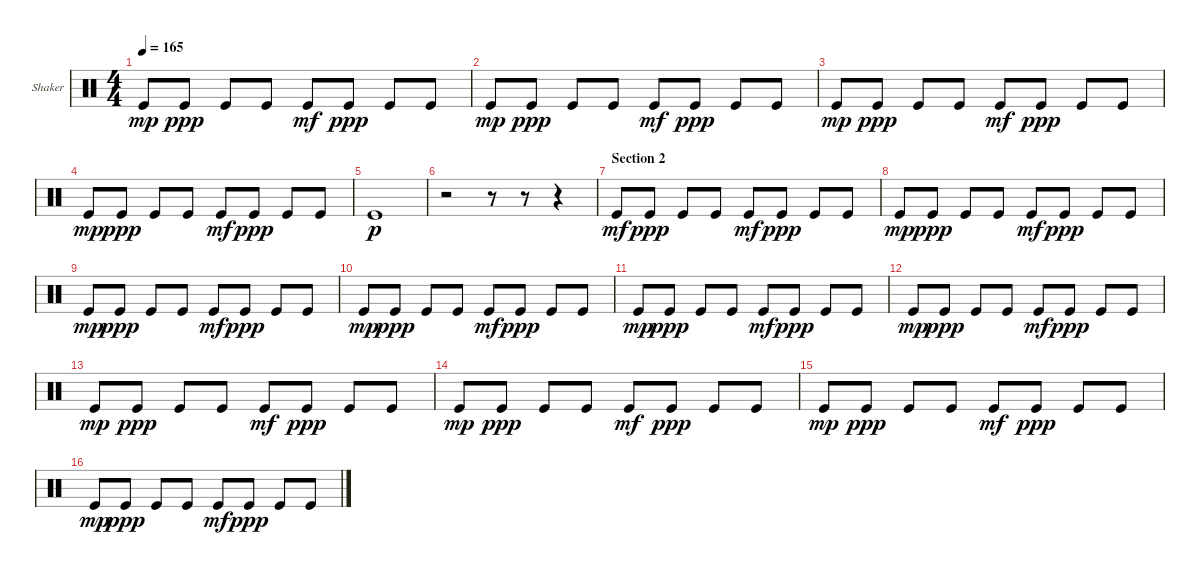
\bracketExtendMode groupsimilarinstruments
\firstSystemTrackNameOrientation horizontal
\otherSystemsTrackNameOrientation horizontal
\track ("Shaker" "Shaker") {instrument percussion}
\staff {score}
\articulation defaults
\ts (4 4)
\tempo 165
\clef neutral
\ks c "Kick (hit)".8{dy mp} "Kick (hit)".8{dy ppp} "Kick (hit)".8 "Kick (hit)".8 "Kick (hit)".8{dy mf} "Kick (hit)".8{dy ppp} "Kick (hit)".8 "Kick (hit)".8
|
"Kick (hit)".8{dy mp} "Kick (hit)".8{dy ppp} "Kick (hit)".8 "Kick (hit)".8 "Kick (hit)".8{dy mf} "Kick (hit)".8{dy ppp} "Kick (hit)".8 "Kick (hit)".8 |
"Kick (hit)".8{dy mp} "Kick (hit)".8{dy ppp} "Kick (hit)".8 "Kick (hit)".8 "Kick (hit)".8{dy mf} "Kick (hit)".8{dy ppp} "Kick (hit)".8 "Kick (hit)".8 |
"Kick (hit)".8{dy mp} "Kick (hit)".8{dy ppp} "Kick (hit)".8 "Kick (hit)".8 "Kick (hit)".8{dy mf} "Kick (hit)".8{dy ppp} "Kick (hit)".8 "Kick (hit)".8 |
"Kick (hit)".1{dy p} |
r.2 r.8 r.8 r.4 |
\section ("" "Section 2")
"Kick (hit)".8{dy mf} "Kick (hit)".8{dy ppp} "Kick (hit)".8 "Kick (hit)".8 "Kick (hit)".8{dy mf} "Kick (hit)".8{dy ppp} "Kick (hit)".8 "Kick (hit)".8 |
"Kick (hit)".8{dy mp} "Kick (hit)".8{dy ppp} "Kick (hit)".8 "Kick (hit)".8 "Kick (hit)".8{dy mf} "Kick (hit)".8{dy ppp} "Kick (hit)".8 "Kick (hit)".8 |
"Kick (hit)".8{dy mp} "Kick (hit)".8{dy ppp} "Kick (hit)".8 "Kick (hit)".8 "Kick (hit)".8{dy mf} "Kick (hit)".8{dy ppp} "Kick (hit)".8 "Kick (hit)".8 |
"Kick (hit)".8{dy mp} "Kick (hit)".8{dy ppp} "Kick (hit)".8 "Kick (hit)".8 "Kick (hit)".8{dy mf} "Kick (hit)".8{dy ppp} "Kick (hit)".8 "Kick (hit)".8 |
"Kick (hit)".8{dy mp} "Kick (hit)".8{dy ppp} "Kick (hit)".8 "Kick (hit)".8 "Kick (hit)".8{dy mf} "Kick (hit)".8{dy ppp} "Kick (hit)".8 "Kick (hit)".8 |
"Kick (hit)".8{dy mp} "Kick (hit)".8{dy ppp} "Kick (hit)".8 "Kick (hit)".8 "Kick (hit)".8{dy mf} "Kick (hit)".8{dy ppp} "Kick (hit)".8 "Kick (hit)".8 |
"Kick (hit)".8{dy mp} "Kick (hit)".8{dy ppp} "Kick (hit)".8 "Kick (hit)".8 "Kick (hit)".8{dy mf} "Kick (hit)".8{dy ppp} "Kick (hit)".8 "Kick (hit)".8 |
"Kick (hit)".8{dy mp} "Kick (hit)".8{dy ppp} "Kick (hit)".8 "Kick (hit)".8 "Kick (hit)".8{dy mf} "Kick (hit)".8{dy ppp} "Kick (hit)".8 "Kick (hit)".8 |
"Kick (hit)".8{dy mp} "Kick (hit)".8{dy ppp} "Kick (hit)".8 "Kick (hit)".8 "Kick (hit)".8{dy mf} "Kick (hit)".8{dy ppp} "Kick (hit)".8 "Kick (hit)".8 |
"Kick (hit)".8{dy mp} "Kick (hit)".8{dy ppp} "Kick (hit)".8 "Kick (hit)".8 "Kick (hit)".8{dy mf} "Kick (hit)".8{dy ppp} "Kick (hit)".8 "Kick (hit)".8
